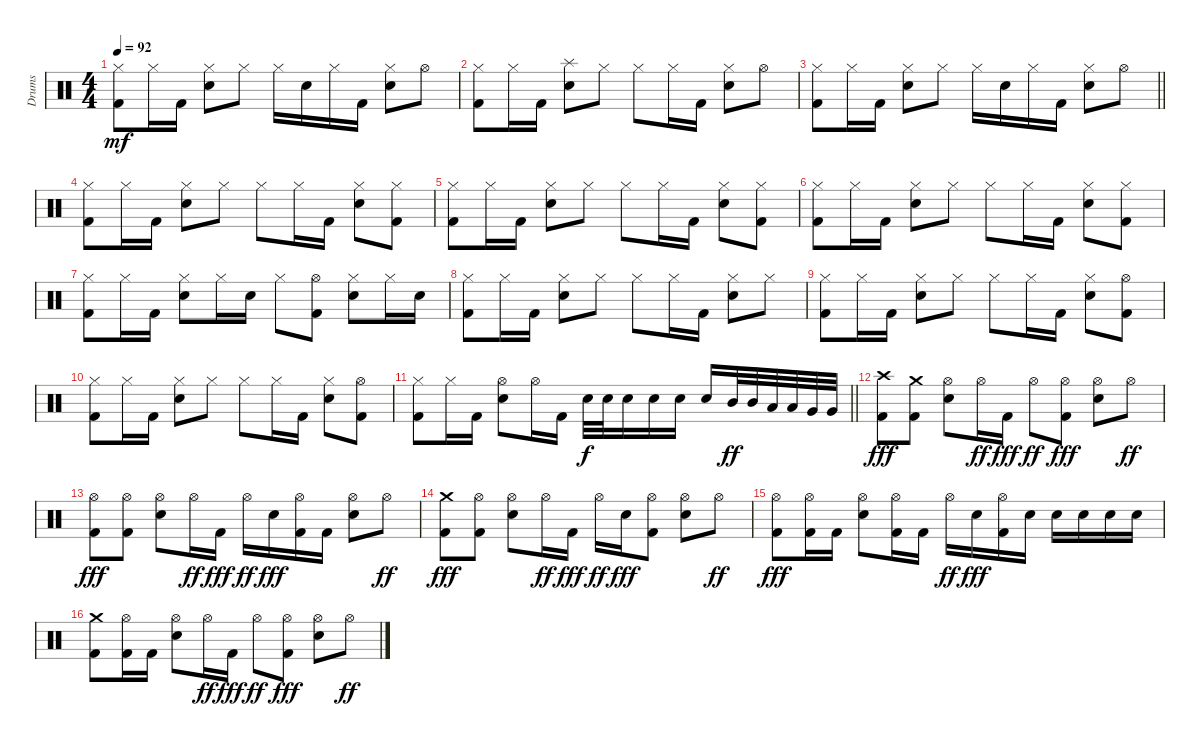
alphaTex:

\track ("Drums" "Drums") {instrument percussion}
\staff {score}
\articulation defaults
\ts (4 4)
\tempo 92
\clef neutral
\ks c
("Hi-Hat (closed)" "Kick (hit) 2").8{dy mf} "Hi-Hat (closed)".16 "Kick (hit) 2".16 ("Hi-Hat (closed)" "Snare (hit) 2").8 "Hi-Hat (closed)".8 "Hi-Hat (closed)".16 "Snare (hit) 2".16 "Hi-Hat (closed)".16 "Kick (hit) 2".16 ("Hi-Hat (closed)" "Snare (hit) 2").8 "Hi-Hat (open)".8 |
("Hi-Hat (closed)" "Kick (hit) 2").8 "Hi-Hat (closed)".16 "Kick (hit) 2".16 ("Splash (hit)" "Snare (hit) 2").8 "Hi-Hat (closed)".8 "Hi-Hat (closed)".8 "Hi-Hat (closed)".16 "Kick (hit) 2".16 ("Hi-Hat (closed)" "Snare (hit) 2").8 "Hi-Hat (open)".8 |
\barLineRight lightlight
("Hi-Hat (closed)" "Kick (hit) 2").8 "Hi-Hat (closed)".16 "Kick (hit) 2".16 ("Hi-Hat (closed)" "Snare (hit) 2").8 "Hi-Hat (closed)".8 "Hi-Hat (closed)".16 "Snare (hit) 2".16 "Hi-Hat (closed)".16 "Kick (hit) 2".16 ("Hi-Hat (closed)" "Snare (hit) 2").8 "Hi-Hat (open)".8 |
\section ("" "")
("Hi-Hat (closed)" "Kick (hit) 2").8 "Hi-Hat (closed)".16 "Kick (hit) 2".16 ("Hi-Hat (closed)" "Snare (hit) 2").8 "Hi-Hat (closed)".8 "Hi-Hat (closed)".8 "Hi-Hat (closed)".16 "Kick (hit) 2".16 ("Hi-Hat (closed)" "Snare (hit) 2").8 ("Hi-Hat (closed)" "Kick (hit) 2").8 |
("Hi-Hat (closed)" "Kick (hit) 2").8 "Hi-Hat (closed)".16 "Kick (hit) 2".16 ("Hi-Hat (closed)" "Snare (hit) 2").8 "Hi-Hat (closed)".8 "Hi-Hat (closed)".8 "Hi-Hat (closed)".16 "Kick (hit) 2".16 ("Hi-Hat (closed)" "Snare (hit) 2").8 ("Hi-Hat (closed)" "Kick (hit) 2").8 |
("Hi-Hat (closed)" "Kick (hit) 2").8 "Hi-Hat (closed)".16 "Kick (hit) 2".16 ("Hi-Hat (closed)" "Snare (hit) 2").8 "Hi-Hat (closed)".8 "Hi-Hat (closed)".8 "Hi-Hat (closed)".16 "Kick (hit) 2".16 ("Hi-Hat (closed)" "Snare (hit) 2").8 ("Hi-Hat (closed)" "Kick (hit) 2").8 |
("Hi-Hat (closed)" "Kick (hit) 2").8 "Hi-Hat (closed)".16 "Kick (hit) 2".16 ("Hi-Hat (closed)" "Snare (hit) 2").8 "Hi-Hat (closed)".16 "Snare (hit) 2".16 "Hi-Hat (closed)".8 ("Hi-Hat (open)" "Kick (hit) 2").8 ("Hi-Hat (closed)" "Snare (hit) 2").8 "Hi-Hat (closed)".16 "Snare (hit) 2".16 |
("Hi-Hat (closed)" "Kick (hit) 2").8 "Hi-Hat (closed)".16 "Kick (hit) 2".16 ("Hi-Hat (closed)" "Snare (hit) 2").8 "Hi-Hat (closed)".8 "Hi-Hat (closed)".8 "Hi-Hat (closed)".16 "Kick (hit) 2".16 ("Hi-Hat (closed)" "Snare (hit) 2").8 "Hi-Hat (closed)".8 |
("Hi-Hat (closed)" "Kick (hit) 2").8 "Hi-Hat (closed)".16 "Kick (hit) 2".16 ("Hi-Hat (closed)" "Snare (hit) 2").8 "Hi-Hat (closed)".8 "Hi-Hat (closed)".8 "Hi-Hat (closed)".16 "Kick (hit) 2".16 ("Hi-Hat (closed)" "Snare (hit) 2").8 ("Hi-Hat (open)" "Kick (hit) 2").8 |
("Hi-Hat (closed)" "Kick (hit) 2").8 "Hi-Hat (closed)".16 "Kick (hit) 2".16 ("Hi-Hat (closed)" "Snare (hit) 2").8 "Hi-Hat (closed)".8 "Hi-Hat (closed)".8 "Hi-Hat (closed)".16 "Kick (hit) 2".16 ("Hi-Hat (closed)" "Snare (hit) 2").8 ("Hi-Hat (open)" "Kick (hit) 2").8 |
\barLineRight lightlight
("Hi-Hat (closed)" "Kick (hit) 2").8 "Hi-Hat (closed)".16 "Kick (hit) 2".16 ("Hi-Hat (open)" "Snare (hit) 2").8 "Hi-Hat (open)".16 "Kick (hit) 2".16 "Snare (hit) 2".32{dy f} "Snare (hit) 2".32 "Snare (hit) 2".16 "Snare (hit) 2".16 "Snare (hit) 2".16 "Snare (hit) 2".16 "Mid Tom (hit)".32{dy ff} "Mid Tom (hit)".32 "Low Tom (hit)".32 "Low Tom (hit)".32 "Very Low Tom (hit)".32 "Very Low Tom (hit)".32 |
\section ("" "")
("Crash high (hit)" "Kick (hit) 2").8{dy fff} ("Crash medium (hit)" "Kick (hit) 2").8 ("Hi-Hat (open)" "Snare (hit) 2").8 "Hi-Hat (open)".16{dy ff} "Kick (hit) 2".16{dy fff} "Hi-Hat (open)".8{dy ff} ("Hi-Hat (open)" "Kick (hit) 2").8{dy fff} ("Hi-Hat (open)" "Snare (hit) 2").8 "Hi-Hat (open)".8{dy ff} |
("Hi-Hat (open)" "Kick (hit) 2").8{dy fff} ("Hi-Hat (open)" "Kick (hit) 2").8 ("Hi-Hat (open)" "Snare (hit) 2").8 "Hi-Hat (open)".16{dy ff} "Kick (hit) 2".16{dy fff} "Hi-Hat (open)".16{dy ff} "Snare (hit) 2".16{dy fff} ("Hi-Hat (open)" "Kick (hit) 2").16 "Kick (hit) 2".16 ("Hi-Hat (open)" "Snare (hit) 2").8 "Hi-Hat (open)".8{dy ff} |
("Crash medium (hit)" "Kick (hit) 2").8{dy fff} ("Hi-Hat (open)" "Kick (hit) 2").8 ("Hi-Hat (open)" "Snare (hit) 2").8 "Hi-Hat (open)".16{dy ff} "Kick (hit) 2".16{dy fff} "Hi-Hat (open)".16{dy ff} "Snare (hit) 2".16{dy fff} ("Hi-Hat (open)" "Kick (hit) 2").8 ("Hi-Hat (open)" "Snare (hit) 2").8 "Hi-Hat (open)".8{dy ff} |
("Hi-Hat (open)" "Kick (hit) 2").8{dy fff} ("Hi-Hat (open)" "Kick (hit) 2").16 "Kick (hit) 2".16 ("Hi-Hat (open)" "Snare (hit) 2").8 ("Hi-Hat (open)" "Kick (hit) 2").16 "Kick (hit) 2".16 "Hi-Hat (open)".16{dy ff} "Snare (hit) 2".16{dy fff} ("Hi-Hat (open)" "Kick (hit) 2").16 "Snare (hit) 2".16 "Snare (hit) 2".16 "Snare (hit) 2".16 "Snare (hit) 2".16 "Snare (hit) 2".16 |
("Crash medium (hit)" "Kick (hit) 2").8 ("Hi-Hat (open)" "Kick (hit) 2").16 "Kick (hit) 2".16 ("Hi-Hat (open)" "Snare (hit) 2").8 "Hi-Hat (open)".16{dy ff} "Kick (hit) 2".16{dy fff} "Hi-Hat (open)".8{dy ff} ("Hi-Hat (open)" "Kick (hit) 2").8{dy fff} ("Hi-Hat (open)" "Snare (hit) 2").8 "Hi-Hat (open)".8{dy ff}
